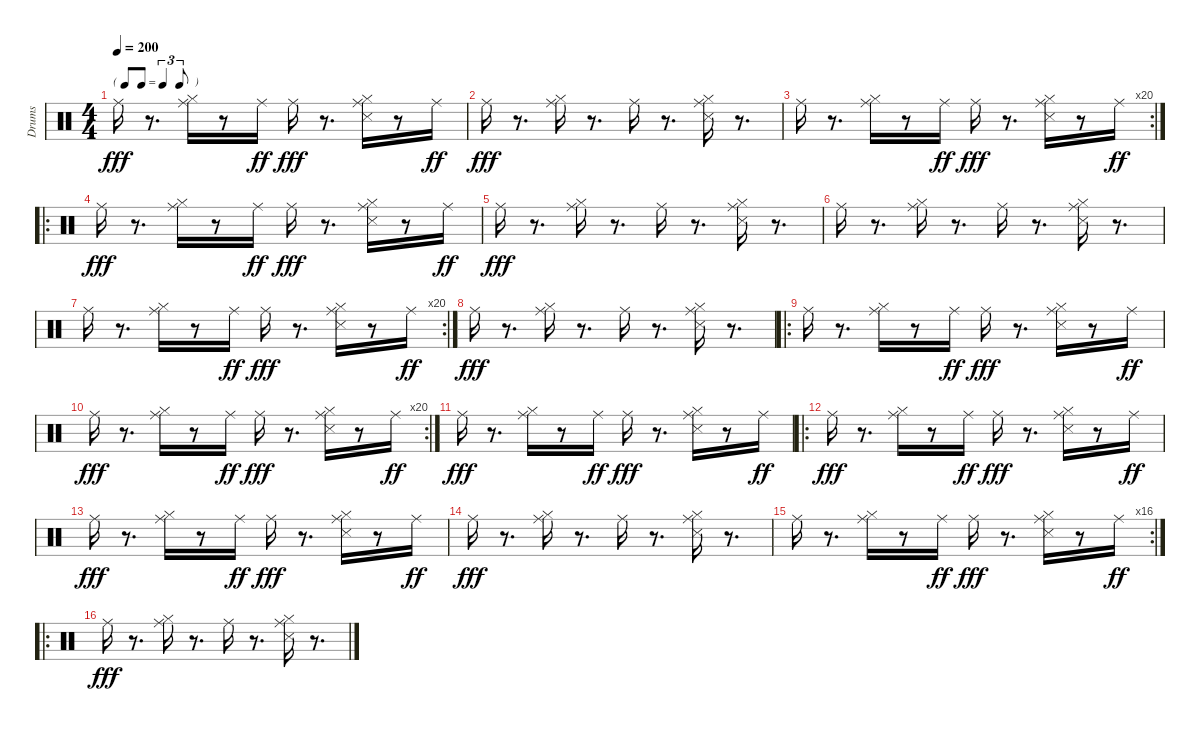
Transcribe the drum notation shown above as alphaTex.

\track ("Drums                                   " "Drums     ") {instrument percussion}
\staff {score}
\articulation defaults
\ts (4 4)
\tf triplet8th
\tempo 200
\clef neutral
\ks c "Ride (middle)".16{dy fff}
r.8{d} ("Hi-Hat (closed)" "Ride (middle)").16 r.8 "Ride (middle)".16{dy ff} "Ride (middle)".16{dy fff} r.8{d} ("Hi-Hat (closed)" "Snare (side stick) 3" "Ride (middle)").16 r.8 "Ride (middle)".16{dy ff} |
"Ride (middle)".16{dy fff} r.8{d} ("Hi-Hat (closed)" "Ride (middle)").16 r.8{d} "Ride (middle)".16 r.8{d} ("Hi-Hat (closed)" "Snare (side stick) 3" "Ride (middle)").16 r.8{d} |
\rc 20 "Ride (middle)".16
r.8{d} ("Hi-Hat (closed)" "Ride (middle)").16 r.8 "Ride (middle)".16{dy ff} "Ride (middle)".16{dy fff} r.8{d} ("Hi-Hat (closed)" "Snare (side stick) 3" "Ride (middle)").16 r.8 "Ride (middle)".16{dy ff} |
\ro "Ride (middle)".16{dy fff}
r.8{d} ("Hi-Hat (closed)" "Ride (middle)").16 r.8 "Ride (middle)".16{dy ff} "Ride (middle)".16{dy fff} r.8{d} ("Hi-Hat (closed)" "Snare (side stick) 3" "Ride (middle)").16 r.8 "Ride (middle)".16{dy ff} |
"Ride (middle)".16{dy fff} r.8{d} ("Hi-Hat (closed)" "Ride (middle)").16 r.8{d} "Ride (middle)".16 r.8{d} ("Hi-Hat (closed)" "Snare (side stick) 3" "Ride (middle)").16 r.8{d} |
"Ride (middle)".16 r.8{d} ("Hi-Hat (closed)" "Ride (middle)").16 r.8{d} "Ride (middle)".16 r.8{d} ("Hi-Hat (closed)" "Snare (side stick) 3" "Ride (middle)").16 r.8{d} |
\rc 20 "Ride (middle)".16
r.8{d} ("Hi-Hat (closed)" "Ride (middle)").16 r.8 "Ride (middle)".16{dy ff} "Ride (middle)".16{dy fff} r.8{d} ("Hi-Hat (closed)" "Snare (side stick) 3" "Ride (middle)").16 r.8 "Ride (middle)".16{dy ff} |
"Ride (middle)".16{dy fff} r.8{d} ("Hi-Hat (closed)" "Ride (middle)").16 r.8{d} "Ride (middle)".16 r.8{d} ("Hi-Hat (closed)" "Snare (side stick) 3" "Ride (middle)").16 r.8{d} |
\ro "Ride (middle)".16
r.8{d} ("Hi-Hat (closed)" "Ride (middle)").16 r.8 "Ride (middle)".16{dy ff} "Ride (middle)".16{dy fff} r.8{d} ("Hi-Hat (closed)" "Snare (side stick) 3" "Ride (middle)").16 r.8 "Ride (middle)".16{dy ff} |
\rc 20 "Ride (middle)".16{dy fff}
r.8{d} ("Hi-Hat (closed)" "Ride (middle)").16 r.8 "Ride (middle)".16{dy ff} "Ride (middle)".16{dy fff} r.8{d} ("Hi-Hat (closed)" "Snare (side stick) 3" "Ride (middle)").16 r.8 "Ride (middle)".16{dy ff} |
"Ride (middle)".16{dy fff} r.8{d} ("Hi-Hat (closed)" "Ride (middle)").16 r.8 "Ride (middle)".16{dy ff} "Ride (middle)".16{dy fff} r.8{d} ("Hi-Hat (closed)" "Snare (side stick) 3" "Ride (middle)").16 r.8 "Ride (middle)".16{dy ff} |
\ro "Ride (middle)".16{dy fff}
r.8{d} ("Hi-Hat (closed)" "Ride (middle)").16 r.8 "Ride (middle)".16{dy ff} "Ride (middle)".16{dy fff} r.8{d} ("Hi-Hat (closed)" "Snare (side stick) 3" "Ride (middle)").16 r.8 "Ride (middle)".16{dy ff} |
"Ride (middle)".16{dy fff} r.8{d} ("Hi-Hat (closed)" "Ride (middle)").16 r.8 "Ride (middle)".16{dy ff} "Ride (middle)".16{dy fff} r.8{d} ("Hi-Hat (closed)" "Snare (side stick) 3" "Ride (middle)").16 r.8 "Ride (middle)".16{dy ff} |
"Ride (middle)".16{dy fff} r.8{d} ("Hi-Hat (closed)" "Ride (middle)").16 r.8{d} "Ride (middle)".16 r.8{d} ("Hi-Hat (closed)" "Snare (side stick) 3" "Ride (middle)").16 r.8{d} |
\rc 16 "Ride (middle)".16
r.8{d} ("Hi-Hat (closed)" "Ride (middle)").16 r.8 "Ride (middle)".16{dy ff} "Ride (middle)".16{dy fff} r.8{d} ("Hi-Hat (closed)" "Snare (side stick) 3" "Ride (middle)").16 r.8 "Ride (middle)".16{dy ff} |
\ro "Ride (middle)".16{dy fff}
r.8{d} ("Hi-Hat (closed)" "Ride (middle)").16 r.8{d} "Ride (middle)".16 r.8{d} ("Hi-Hat (closed)" "Snare (side stick) 3" "Ride (middle)").16 r.8{d}
